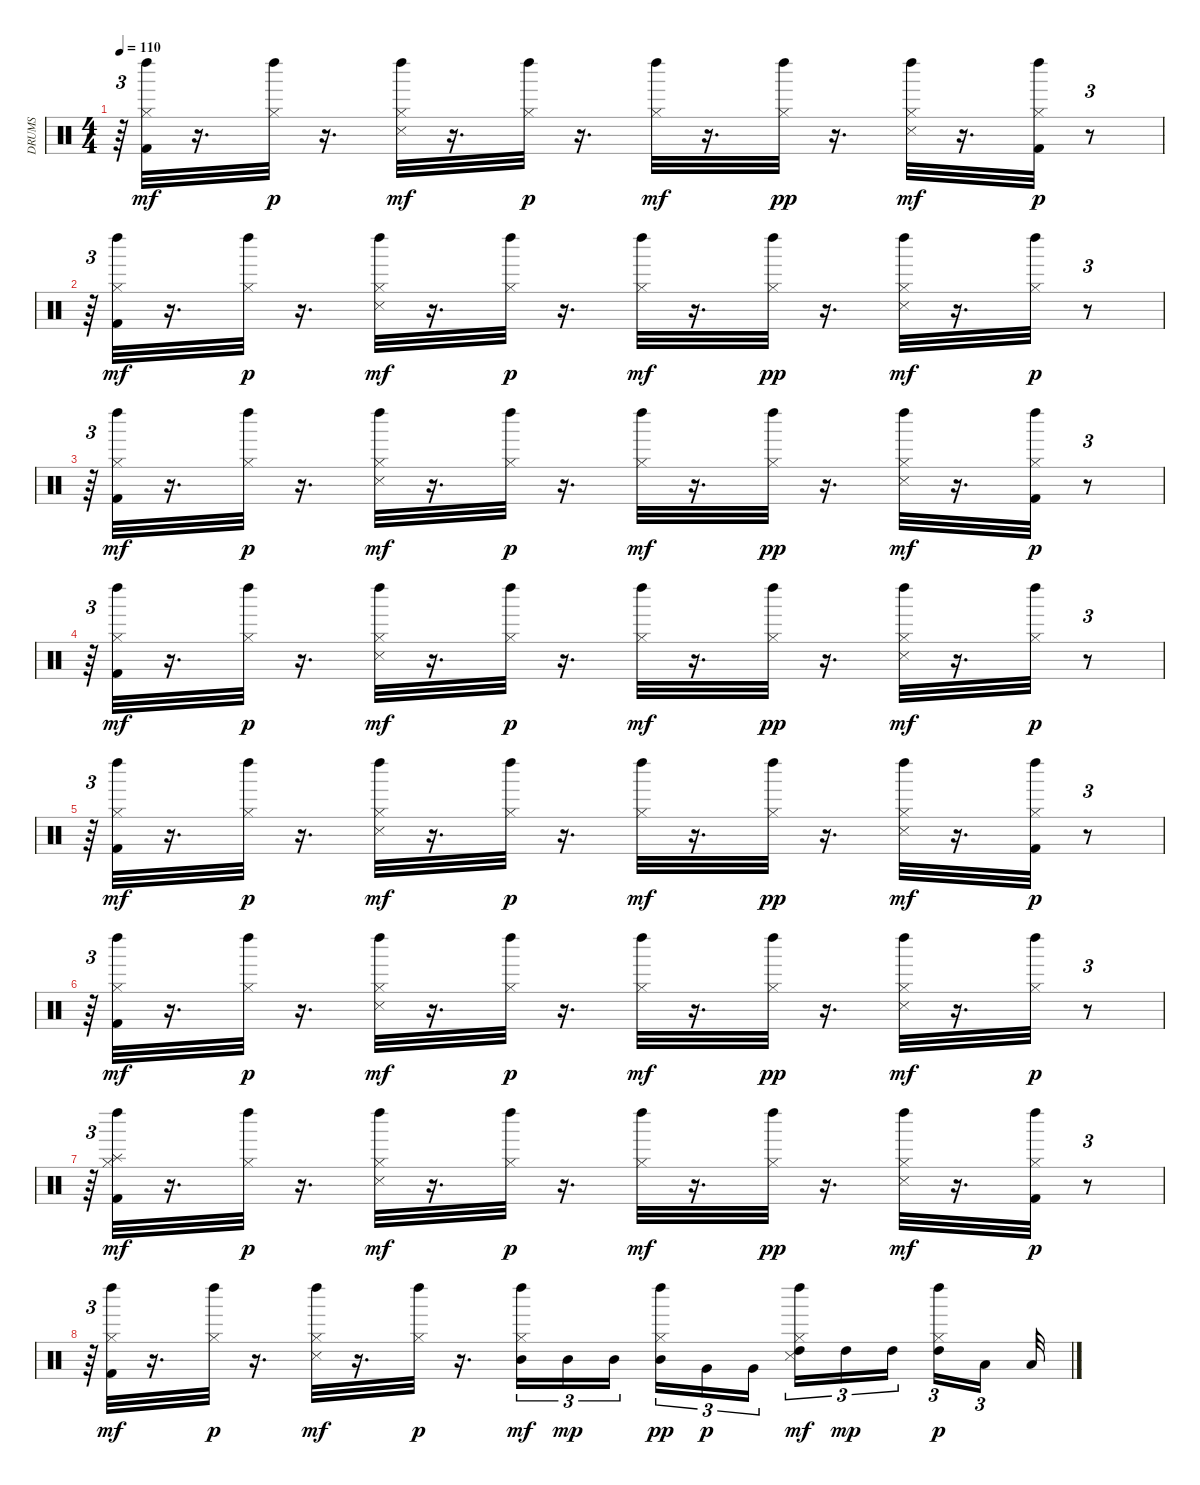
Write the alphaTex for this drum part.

\track ("DRUMS" "DRUMS") {instrument percussion}
\staff {score}
\articulation defaults
\ts (4 4)
\tempo 110
\clef neutral
\ks c
r.64{tu (3 2) dy p} ("Kick (hit) 2" "Hi-Hat (closed)" "Left Maraca (hit)").32{dy mf} r.16{d} ("Hi-Hat (closed)" "Left Maraca (hit)").32{dy p} r.16{d} ("Snare (side stick) 3" "Hi-Hat (closed)" "Left Maraca (hit)").32{dy mf} r.16{d} ("Hi-Hat (closed)" "Left Maraca (hit)").32{dy p} r.16{d} ("Hi-Hat (closed)" "Left Maraca (hit)").32{dy mf} r.16{d} ("Hi-Hat (closed)" "Left Maraca (hit)").32{dy pp} r.16{d} ("Snare (side stick) 3" "Hi-Hat (closed)" "Left Maraca (hit)").32{dy mf} r.16{d} ("Kick (hit) 2" "Hi-Hat (closed)" "Left Maraca (hit)").32{dy p} r.8{tu (3 2)} |
r.64{tu (3 2)} ("Kick (hit) 2" "Hi-Hat (closed)" "Left Maraca (hit)").32{dy mf} r.16{d} ("Hi-Hat (closed)" "Left Maraca (hit)").32{dy p} r.16{d} ("Snare (side stick) 3" "Hi-Hat (closed)" "Left Maraca (hit)").32{dy mf} r.16{d} ("Hi-Hat (closed)" "Left Maraca (hit)").32{dy p} r.16{d} ("Hi-Hat (closed)" "Left Maraca (hit)").32{dy mf} r.16{d} ("Hi-Hat (closed)" "Left Maraca (hit)").32{dy pp} r.16{d} ("Snare (side stick) 3" "Hi-Hat (closed)" "Left Maraca (hit)").32{dy mf} r.16{d} ("Hi-Hat (closed)" "Left Maraca (hit)").32{dy p} r.8{tu (3 2)} |
r.64{tu (3 2)} ("Kick (hit) 2" "Hi-Hat (closed)" "Left Maraca (hit)").32{dy mf} r.16{d} ("Hi-Hat (closed)" "Left Maraca (hit)").32{dy p} r.16{d} ("Snare (side stick) 3" "Hi-Hat (closed)" "Left Maraca (hit)").32{dy mf} r.16{d} ("Hi-Hat (closed)" "Left Maraca (hit)").32{dy p} r.16{d} ("Hi-Hat (closed)" "Left Maraca (hit)").32{dy mf} r.16{d} ("Hi-Hat (closed)" "Left Maraca (hit)").32{dy pp} r.16{d} ("Snare (side stick) 3" "Hi-Hat (closed)" "Left Maraca (hit)").32{dy mf} r.16{d} ("Kick (hit) 2" "Hi-Hat (closed)" "Left Maraca (hit)").32{dy p} r.8{tu (3 2)} |
r.64{tu (3 2)} ("Kick (hit) 2" "Hi-Hat (closed)" "Left Maraca (hit)").32{dy mf} r.16{d} ("Hi-Hat (closed)" "Left Maraca (hit)").32{dy p} r.16{d} ("Snare (side stick) 3" "Hi-Hat (closed)" "Left Maraca (hit)").32{dy mf} r.16{d} ("Hi-Hat (closed)" "Left Maraca (hit)").32{dy p} r.16{d} ("Hi-Hat (closed)" "Left Maraca (hit)").32{dy mf} r.16{d} ("Hi-Hat (closed)" "Left Maraca (hit)").32{dy pp} r.16{d} ("Snare (side stick) 3" "Hi-Hat (closed)" "Left Maraca (hit)").32{dy mf} r.16{d} ("Hi-Hat (closed)" "Left Maraca (hit)").32{dy p} r.8{tu (3 2)} |
r.64{tu (3 2)} ("Kick (hit) 2" "Hi-Hat (closed)" "Left Maraca (hit)").32{dy mf} r.16{d} ("Hi-Hat (closed)" "Left Maraca (hit)").32{dy p} r.16{d} ("Snare (side stick) 3" "Hi-Hat (closed)" "Left Maraca (hit)").32{dy mf} r.16{d} ("Hi-Hat (closed)" "Left Maraca (hit)").32{dy p} r.16{d} ("Hi-Hat (closed)" "Left Maraca (hit)").32{dy mf} r.16{d} ("Hi-Hat (closed)" "Left Maraca (hit)").32{dy pp} r.16{d} ("Snare (side stick) 3" "Hi-Hat (closed)" "Left Maraca (hit)").32{dy mf} r.16{d} ("Kick (hit) 2" "Hi-Hat (closed)" "Left Maraca (hit)").32{dy p} r.8{tu (3 2)} |
r.64{tu (3 2)} ("Kick (hit) 2" "Hi-Hat (closed)" "Left Maraca (hit)").32{dy mf} r.16{d} ("Hi-Hat (closed)" "Left Maraca (hit)").32{dy p} r.16{d} ("Snare (side stick) 3" "Hi-Hat (closed)" "Left Maraca (hit)").32{dy mf} r.16{d} ("Hi-Hat (closed)" "Left Maraca (hit)").32{dy p} r.16{d} ("Hi-Hat (closed)" "Left Maraca (hit)").32{dy mf} r.16{d} ("Hi-Hat (closed)" "Left Maraca (hit)").32{dy pp} r.16{d} ("Snare (side stick) 3" "Hi-Hat (closed)" "Left Maraca (hit)").32{dy mf} r.16{d} ("Hi-Hat (closed)" "Left Maraca (hit)").32{dy p} r.8{tu (3 2)} |
r.64{tu (3 2)} ("Kick (hit) 2" "Hi-Hat (closed)" "Splash (hit)" "Left Maraca (hit)").32{dy mf} r.16{d} ("Hi-Hat (closed)" "Left Maraca (hit)").32{dy p} r.16{d} ("Snare (side stick) 3" "Hi-Hat (closed)" "Left Maraca (hit)").32{dy mf} r.16{d} ("Hi-Hat (closed)" "Left Maraca (hit)").32{dy p} r.16{d} ("Hi-Hat (closed)" "Left Maraca (hit)").32{dy mf} r.16{d} ("Hi-Hat (closed)" "Left Maraca (hit)").32{dy pp} r.16{d} ("Snare (side stick) 3" "Hi-Hat (closed)" "Left Maraca (hit)").32{dy mf} r.16{d} ("Kick (hit) 2" "Hi-Hat (closed)" "Left Maraca (hit)").32{dy p} r.8{tu (3 2)} |
r.64{tu (3 2)} ("Kick (hit) 2" "Hi-Hat (closed)" "Left Maraca (hit)").32{dy mf} r.16{d} ("Hi-Hat (closed)" "Left Maraca (hit)").32{dy p} r.16{d} ("Snare (side stick) 3" "Hi-Hat (closed)" "Left Maraca (hit)").32{dy mf} r.16{d} ("Hi-Hat (closed)" "Left Maraca (hit)").32{dy p} r.16{d} ("Hi-Hat (closed)" "Mid Tom (hit)" "Left Maraca (hit)").16{tu (3 2) dy mf} "Mid Tom (hit)".16{tu (3 2) dy mp} "Mid Tom (hit)".16{tu (3 2) beam splitsecondary} ("Hi-Hat (closed)" "Mid Tom (hit)" "Left Maraca (hit)").16{tu (3 2) dy pp} "Very Low Tom (hit)".16{tu (3 2) dy p} "Very Low Tom (hit)".16{tu (3 2)} ("Snare (side stick) 3" "Hi-Hat (closed)" "High Tom (hit)" "Left Maraca (hit)").16{tu (3 2) dy mf} "High Tom (hit)".16{tu (3 2) dy mp} "High Tom (hit)".16{tu (3 2) beam splitsecondary} ("Hi-Hat (closed)" "High Tom (hit)" "Left Maraca (hit)").16{tu (3 2) dy p} "Low Tom (hit)".16{tu (3 2) beam splitsecondary} "Low Tom (hit)".32
